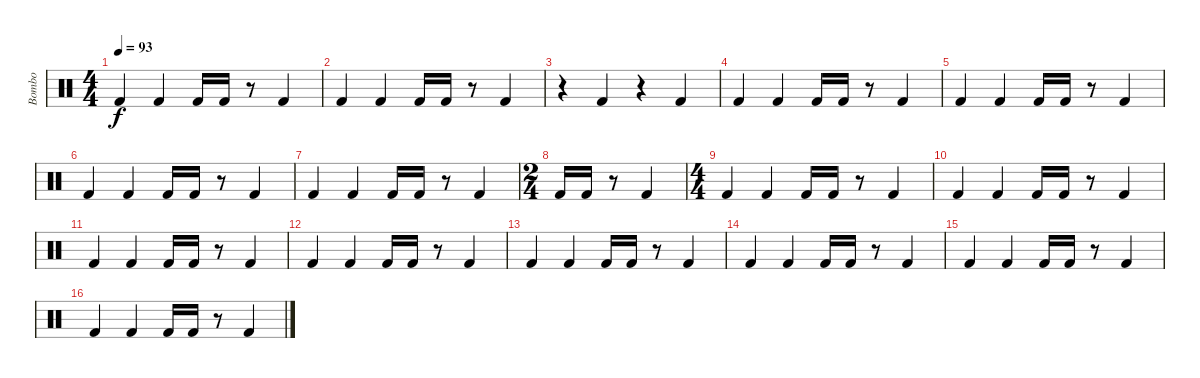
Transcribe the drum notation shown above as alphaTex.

\track ("Bombo" "Bombo") {instrument percussion bank 1}
\staff {score}
\articulation defaults
\ts (4 4)
\tempo 93
\clef neutral
\ks c "Kick (hit) 2".4{dy f} "Kick (hit) 2".4 "Kick (hit) 2".16 "Kick (hit) 2".16
r.8 "Kick (hit) 2".4 |
"Kick (hit) 2".4 "Kick (hit) 2".4 "Kick (hit) 2".16 "Kick (hit) 2".16 r.8 "Kick (hit) 2".4 |
r.4 "Kick (hit) 2".4 r.4 "Kick (hit) 2".4 |
"Kick (hit) 2".4 "Kick (hit) 2".4 "Kick (hit) 2".16 "Kick (hit) 2".16 r.8 "Kick (hit) 2".4 |
"Kick (hit) 2".4 "Kick (hit) 2".4 "Kick (hit) 2".16 "Kick (hit) 2".16 r.8 "Kick (hit) 2".4 |
"Kick (hit) 2".4 "Kick (hit) 2".4 "Kick (hit) 2".16 "Kick (hit) 2".16 r.8 "Kick (hit) 2".4 |
"Kick (hit) 2".4 "Kick (hit) 2".4 "Kick (hit) 2".16 "Kick (hit) 2".16 r.8 "Kick (hit) 2".4 |
\ts (2 4)
"Kick (hit) 2".16 "Kick (hit) 2".16 r.8 "Kick (hit) 2".4 |
\ts (4 4)
"Kick (hit) 2".4 "Kick (hit) 2".4 "Kick (hit) 2".16 "Kick (hit) 2".16 r.8 "Kick (hit) 2".4 |
"Kick (hit) 2".4 "Kick (hit) 2".4 "Kick (hit) 2".16 "Kick (hit) 2".16 r.8 "Kick (hit) 2".4 |
"Kick (hit) 2".4 "Kick (hit) 2".4 "Kick (hit) 2".16 "Kick (hit) 2".16 r.8 "Kick (hit) 2".4 |
"Kick (hit) 2".4 "Kick (hit) 2".4 "Kick (hit) 2".16 "Kick (hit) 2".16 r.8 "Kick (hit) 2".4 |
"Kick (hit) 2".4 "Kick (hit) 2".4 "Kick (hit) 2".16 "Kick (hit) 2".16 r.8 "Kick (hit) 2".4 |
"Kick (hit) 2".4 "Kick (hit) 2".4 "Kick (hit) 2".16 "Kick (hit) 2".16 r.8 "Kick (hit) 2".4 |
"Kick (hit) 2".4 "Kick (hit) 2".4 "Kick (hit) 2".16 "Kick (hit) 2".16 r.8 "Kick (hit) 2".4 |
"Kick (hit) 2".4 "Kick (hit) 2".4 "Kick (hit) 2".16 "Kick (hit) 2".16 r.8 "Kick (hit) 2".4
